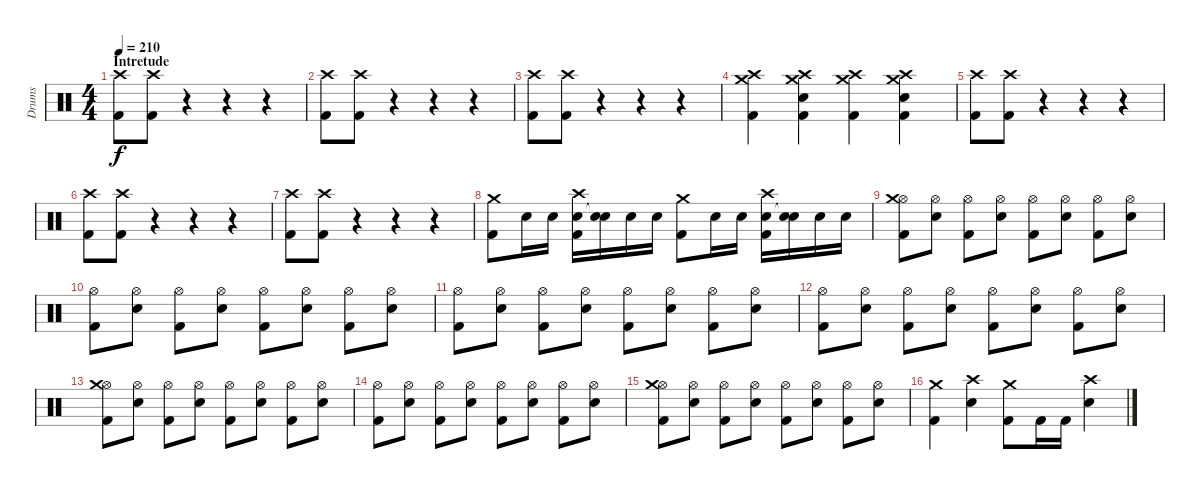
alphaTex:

\track ("Drums" "Drums") {instrument percussion}
\staff {score}
\articulation defaults
\ts (4 4)
\section ("" "Intretude")
\tempo 210
\clef neutral
\ks c
("Crash high (hit)" "Kick (hit) 2").8{dy f} ("Crash high (hit)" "Kick (hit) 2").8 r.4 r.4 r.4 |
("Crash high (hit)" "Kick (hit) 2").8 ("Crash high (hit)" "Kick (hit) 2").8 r.4 r.4 r.4 |
("Crash high (hit)" "Kick (hit) 2").8 ("Crash high (hit)" "Kick (hit) 2").8 r.4 r.4 r.4 |
("Crash high (hit)" "Crash medium (hit)" "Kick (hit) 2").4 ("Crash medium (hit)" "Crash high (hit)" "Electric Snare (hit)" "Kick (hit) 2").4 ("Crash high (hit)" "Crash medium (hit)" "Kick (hit) 2").4 ("Crash medium (hit)" "Crash high (hit)" "Electric Snare (hit)" "Kick (hit) 2").4 |
("Crash high (hit)" "Kick (hit) 2").8 ("Crash high (hit)" "Kick (hit) 2").8 r.4 r.4 r.4 |
("Crash high (hit)" "Kick (hit) 2").8 ("Crash high (hit)" "Kick (hit) 2").8 r.4 r.4 r.4 |
("Crash high (hit)" "Kick (hit) 2").8 ("Crash high (hit)" "Kick (hit) 2").8 r.4 r.4 r.4 |
("Crash medium (hit)" "Kick (hit) 2").8 "Electric Snare (hit)".16 "Electric Snare (hit)".16 ("Crash high (hit)" "Electric Snare (hit)" "Kick (hit) 2").16 ("Electric Snare (hit)" "Snare (hit)"{t}).16 "Electric Snare (hit)".16 "Electric Snare (hit)".16 ("Crash medium (hit)" "Kick (hit) 2").8 "Electric Snare (hit)".16 "Electric Snare (hit)".16 ("Crash high (hit)" "Electric Snare (hit)" "Kick (hit) 2").16 ("Electric Snare (hit)" "Snare (hit)"{t}).16 "Electric Snare (hit)".16 "Electric Snare (hit)".16 |
("Hi-Hat (open)" "Crash medium (hit)" "Kick (hit) 2").8 ("Hi-Hat (open)" "Electric Snare (hit)").8 ("Hi-Hat (open)" "Kick (hit) 2").8 ("Hi-Hat (open)" "Electric Snare (hit)").8 ("Hi-Hat (open)" "Kick (hit) 2").8 ("Hi-Hat (open)" "Electric Snare (hit)").8 ("Hi-Hat (open)" "Kick (hit) 2").8 ("Hi-Hat (open)" "Electric Snare (hit)").8 |
("Hi-Hat (open)" "Kick (hit) 2").8 ("Hi-Hat (open)" "Electric Snare (hit)").8 ("Hi-Hat (open)" "Kick (hit) 2").8 ("Hi-Hat (open)" "Electric Snare (hit)").8 ("Hi-Hat (open)" "Kick (hit) 2").8 ("Hi-Hat (open)" "Electric Snare (hit)").8 ("Hi-Hat (open)" "Kick (hit) 2").8 ("Hi-Hat (open)" "Electric Snare (hit)").8 |
("Hi-Hat (open)" "Kick (hit) 2").8 ("Hi-Hat (open)" "Electric Snare (hit)").8 ("Hi-Hat (open)" "Kick (hit) 2").8 ("Hi-Hat (open)" "Electric Snare (hit)").8 ("Hi-Hat (open)" "Kick (hit) 2").8 ("Hi-Hat (open)" "Electric Snare (hit)").8 ("Hi-Hat (open)" "Kick (hit) 2").8 ("Hi-Hat (open)" "Electric Snare (hit)").8 |
("Hi-Hat (open)" "Kick (hit) 2").8 ("Hi-Hat (open)" "Electric Snare (hit)").8 ("Hi-Hat (open)" "Kick (hit) 2").8 ("Hi-Hat (open)" "Electric Snare (hit)").8 ("Hi-Hat (open)" "Kick (hit) 2").8 ("Hi-Hat (open)" "Electric Snare (hit)").8 ("Hi-Hat (open)" "Kick (hit) 2").8 ("Hi-Hat (open)" "Electric Snare (hit)").8 |
("Hi-Hat (open)" "Crash medium (hit)" "Kick (hit) 2").8 ("Hi-Hat (open)" "Electric Snare (hit)").8 ("Hi-Hat (open)" "Kick (hit) 2").8 ("Hi-Hat (open)" "Electric Snare (hit)").8 ("Hi-Hat (open)" "Kick (hit) 2").8 ("Hi-Hat (open)" "Electric Snare (hit)").8 ("Hi-Hat (open)" "Kick (hit) 2").8 ("Hi-Hat (open)" "Electric Snare (hit)").8 |
("Hi-Hat (open)" "Kick (hit) 2").8 ("Hi-Hat (open)" "Electric Snare (hit)").8 ("Hi-Hat (open)" "Kick (hit) 2").8 ("Hi-Hat (open)" "Electric Snare (hit)").8 ("Hi-Hat (open)" "Kick (hit) 2").8 ("Hi-Hat (open)" "Electric Snare (hit)").8 ("Hi-Hat (open)" "Kick (hit) 2").8 ("Hi-Hat (open)" "Electric Snare (hit)").8 |
("Hi-Hat (open)" "Crash medium (hit)" "Kick (hit) 2").8 ("Hi-Hat (open)" "Electric Snare (hit)").8 ("Hi-Hat (open)" "Kick (hit) 2").8 ("Hi-Hat (open)" "Electric Snare (hit)").8 ("Hi-Hat (open)" "Kick (hit) 2").8 ("Hi-Hat (open)" "Electric Snare (hit)").8 ("Hi-Hat (open)" "Kick (hit) 2").8 ("Hi-Hat (open)" "Electric Snare (hit)").8 |
("Crash medium (hit)" "Kick (hit) 2").4 ("Crash high (hit)" "Electric Snare (hit)").4 ("Crash medium (hit)" "Kick (hit) 2").8 "Kick (hit) 2".16 "Kick (hit) 2".16 ("Crash high (hit)" "Electric Snare (hit)").4
